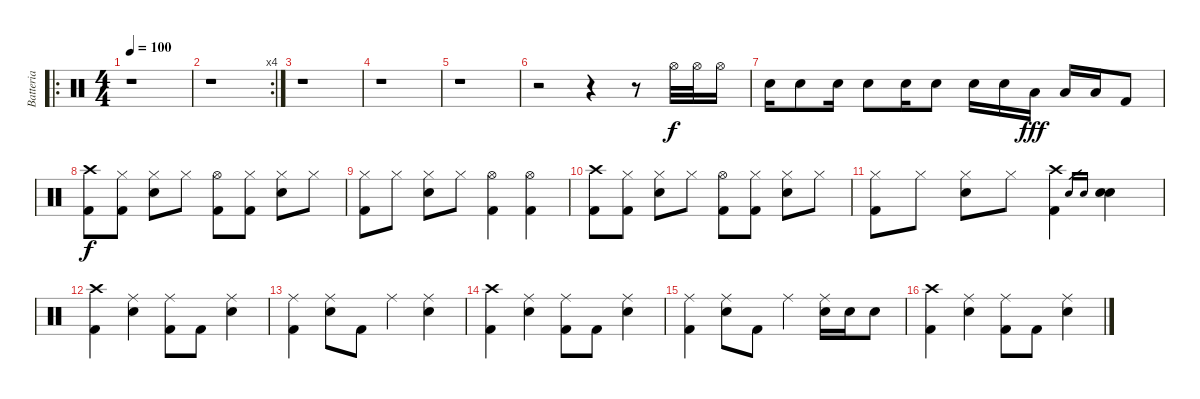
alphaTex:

\track ("Batteria" "Batteria") {instrument percussion}
\staff {score}
\articulation defaults
\ro
\ts (4 4)
\tempo 100
\clef neutral
\ks c
r.1{dy f} |
\rc 4
r.1 |
r.1 |
r.1 |
r.1 |
r.2 r.4 r.8 "Hi-Hat (open)".32 "Hi-Hat (open)".32 "Hi-Hat (open)".16 |
"Electric Snare (hit)".16 "Electric Snare (hit)".8 "Electric Snare (hit)".16 "Electric Snare (hit)".8 "Electric Snare (hit)".16 "Electric Snare (hit)".8 "Electric Snare (hit)".16 "Electric Snare (hit)".16 "Low Floor Tom (hit)".16{dy fff} "Low Floor Tom (hit)".16 "Low Tom (hit)".16 "Kick (hit) 2".8 |
("Crash high (hit)" "Kick (hit) 2").8{dy f} ("Hi-Hat (closed)" "Kick (hit) 2").8 ("Hi-Hat (closed)" "Electric Snare (hit)").8 "Hi-Hat (closed)".8 ("Hi-Hat (open)" "Kick (hit) 2").8 ("Hi-Hat (closed)" "Kick (hit) 2").8 ("Hi-Hat (closed)" "Electric Snare (hit)").8 "Hi-Hat (closed)".8 |
("Hi-Hat (closed)" "Kick (hit) 2").8 "Hi-Hat (closed)".8 ("Hi-Hat (closed)" "Electric Snare (hit)").8 "Hi-Hat (closed)".8 ("Hi-Hat (open)" "Kick (hit) 2").4 ("Hi-Hat (open)" "Kick (hit) 2").4 |
("Crash high (hit)" "Kick (hit) 2").8 ("Hi-Hat (closed)" "Kick (hit) 2").8 ("Hi-Hat (closed)" "Electric Snare (hit)").8 "Hi-Hat (closed)".8 ("Hi-Hat (open)" "Kick (hit) 2").8 ("Hi-Hat (closed)" "Kick (hit) 2").8 ("Hi-Hat (closed)" "Electric Snare (hit)").8 "Hi-Hat (closed)".8 |
("Hi-Hat (closed)" "Kick (hit) 2").8 "Hi-Hat (closed)".8 ("Hi-Hat (closed)" "Electric Snare (hit)").8 "Hi-Hat (closed)".8 ("Crash high (hit)" "Kick (hit) 2").4 "Electric Snare (hit)".16{gr} "Electric Snare (hit)".16{gr} ("Electric Snare (hit)" "Electric Snare (hit)").4 |
("Crash high (hit)" "Kick (hit) 2").4 ("Ride (middle)" "Electric Snare (hit)").4 ("Ride (middle)" "Kick (hit) 2").8 "Kick (hit) 2".8 ("Ride (middle)" "Electric Snare (hit)").4 |
("Ride (middle)" "Kick (hit) 2").4 ("Ride (middle)" "Electric Snare (hit)").8 "Kick (hit) 2".8 "Ride (middle)".4 ("Ride (middle)" "Electric Snare (hit)").4 |
("Crash high (hit)" "Kick (hit) 2").4 ("Ride (middle)" "Electric Snare (hit)").4 ("Ride (middle)" "Kick (hit) 2").8 "Kick (hit) 2".8 ("Ride (middle)" "Electric Snare (hit)").4 |
("Ride (middle)" "Kick (hit) 2").4 ("Ride (middle)" "Electric Snare (hit)").8 "Kick (hit) 2".8 "Ride (middle)".4 ("Ride (middle)" "Electric Snare (hit)").16 "Electric Snare (hit)".16 "Electric Snare (hit)".8 |
("Crash high (hit)" "Kick (hit) 2").4 ("Ride (middle)" "Electric Snare (hit)").4 ("Ride (middle)" "Kick (hit) 2").8 "Kick (hit) 2".8 ("Ride (middle)" "Electric Snare (hit)").4
